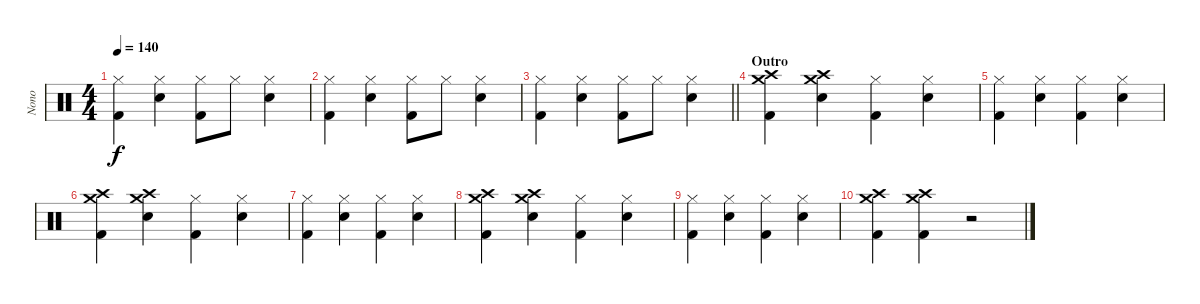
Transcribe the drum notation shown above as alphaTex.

\track ("Nono" "Nono") {instrument percussion}
\staff {score}
\articulation defaults
\ts (4 4)
\tempo 140
\clef neutral
\ks c
("Hi-Hat (closed)" "Kick (hit) 2").4{dy f} ("Hi-Hat (closed)" "Snare (hit) 2").4 ("Hi-Hat (closed)" "Kick (hit) 2").8 "Hi-Hat (closed)".8 ("Hi-Hat (closed)" "Snare (hit) 2").4 |
("Hi-Hat (closed)" "Kick (hit) 2").4 ("Hi-Hat (closed)" "Snare (hit) 2").4 ("Hi-Hat (closed)" "Kick (hit) 2").8 "Hi-Hat (closed)".8 ("Hi-Hat (closed)" "Snare (hit) 2").4 |
\barLineRight lightlight
("Hi-Hat (closed)" "Kick (hit) 2").4 ("Hi-Hat (closed)" "Snare (hit) 2").4 ("Hi-Hat (closed)" "Kick (hit) 2").8 "Hi-Hat (closed)".8 ("Hi-Hat (closed)" "Snare (hit) 2").4 |
\section ("" "Outro")
("Crash high (hit)" "Crash medium (hit)" "Kick (hit) 2").4 ("Crash high (hit)" "Crash medium (hit)" "Snare (hit) 2").4 ("Hi-Hat (closed)" "Kick (hit) 2").4 ("Hi-Hat (closed)" "Snare (hit) 2").4 |
("Hi-Hat (closed)" "Kick (hit) 2").4 ("Hi-Hat (closed)" "Snare (hit) 2").4 ("Hi-Hat (closed)" "Kick (hit) 2").4 ("Hi-Hat (closed)" "Snare (hit) 2").4 |
("Crash high (hit)" "Crash medium (hit)" "Kick (hit) 2").4 ("Crash high (hit)" "Crash medium (hit)" "Snare (hit) 2").4 ("Hi-Hat (closed)" "Kick (hit) 2").4 ("Hi-Hat (closed)" "Snare (hit) 2").4 |
("Hi-Hat (closed)" "Kick (hit) 2").4 ("Hi-Hat (closed)" "Snare (hit) 2").4 ("Hi-Hat (closed)" "Kick (hit) 2").4 ("Hi-Hat (closed)" "Snare (hit) 2").4 |
("Crash high (hit)" "Crash medium (hit)" "Kick (hit) 2").4 ("Crash high (hit)" "Crash medium (hit)" "Snare (hit) 2").4 ("Hi-Hat (closed)" "Kick (hit) 2").4 ("Hi-Hat (closed)" "Snare (hit) 2").4 |
("Hi-Hat (closed)" "Kick (hit) 2").4 ("Hi-Hat (closed)" "Snare (hit) 2").4 ("Hi-Hat (closed)" "Kick (hit) 2").4 ("Hi-Hat (closed)" "Snare (hit) 2").4 |
("Crash high (hit)" "Crash medium (hit)" "Kick (hit) 2").4 ("Crash high (hit)" "Crash medium (hit)" "Kick (hit) 2").4 r.2
